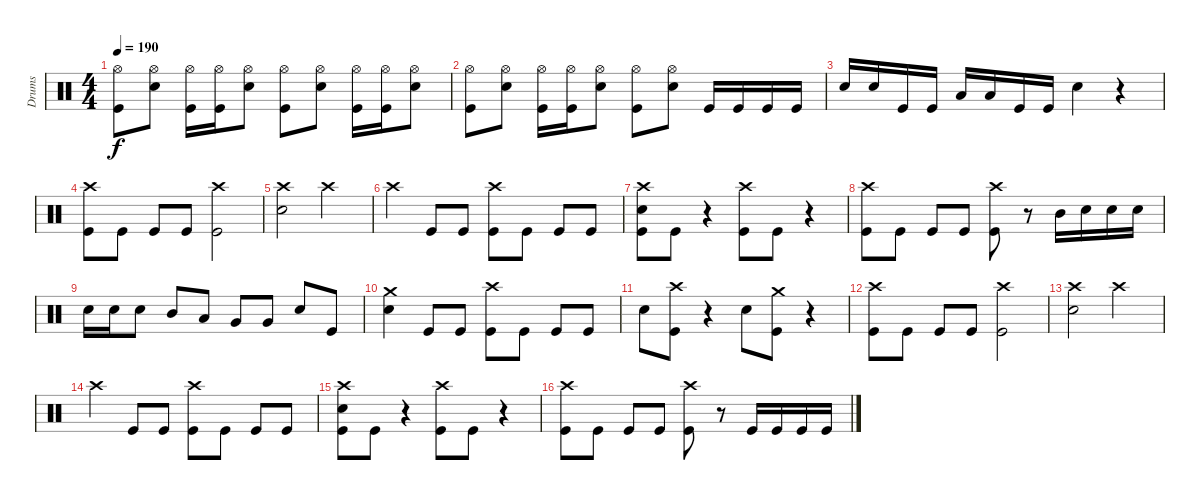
\track ("Drums" "Drums") {instrument percussion}
\staff {score}
\articulation defaults
\ts (4 4)
\tempo 190
\clef neutral
\ks c
("Hi-Hat (open)" "Kick (hit)").8{dy f} ("Hi-Hat (open)" "Snare (hit) 2").8 ("Hi-Hat (open)" "Kick (hit)").16 ("Hi-Hat (open)" "Kick (hit)").16 ("Hi-Hat (open)" "Snare (hit) 2").8 ("Hi-Hat (open)" "Kick (hit)").8 ("Hi-Hat (open)" "Snare (hit) 2").8 ("Hi-Hat (open)" "Kick (hit)").16 ("Hi-Hat (open)" "Kick (hit)").16 ("Hi-Hat (open)" "Snare (hit) 2").8 |
("Hi-Hat (open)" "Kick (hit)").8 ("Hi-Hat (open)" "Snare (hit) 2").8 ("Hi-Hat (open)" "Kick (hit)").16 ("Hi-Hat (open)" "Kick (hit)").16 ("Hi-Hat (open)" "Snare (hit) 2").8 ("Hi-Hat (open)" "Kick (hit)").8 ("Hi-Hat (open)" "Snare (hit) 2").8 "Kick (hit)".16 "Kick (hit)".16 "Kick (hit)".16 "Kick (hit)".16 |
"Snare (hit) 2".16 "Snare (hit) 2".16 "Kick (hit)".16 "Kick (hit)".16 "Low Tom (hit)".16 "Low Tom (hit)".16 "Kick (hit)".16 "Kick (hit)".16 "Snare (hit) 2".4 r.4 |
("Crash high (hit)" "Kick (hit)").8 "Kick (hit)".8 "Kick (hit)".8 "Kick (hit)".8 ("Crash high (hit)" "Kick (hit)").2 |
("Crash high (hit)" "Snare (hit) 2").2 "Crash high (hit)".2 |
"Crash high (hit)".4 "Kick (hit)".8 "Kick (hit)".8 ("Crash high (hit)" "Kick (hit)").8 "Kick (hit)".8 "Kick (hit)".8 "Kick (hit)".8 |
("Crash high (hit)" "Snare (hit) 2" "Kick (hit)").8 "Kick (hit)".8 r.4 ("Crash high (hit)" "Kick (hit)").8 "Kick (hit)".8 r.4 |
("Crash high (hit)" "Kick (hit)").8 "Kick (hit)".8 "Kick (hit)".8 "Kick (hit)".8 ("Crash high (hit)" "Kick (hit)").8 r.8 "Mid Tom (hit)".16 "Snare (hit) 2".16 "Snare (hit) 2".16 "Snare (hit) 2".16 |
"Snare (hit) 2".16 "Snare (hit) 2".16 "Snare (hit) 2".8 "Mid Tom (hit)".8 "Low Tom (hit)".8 "Very Low Tom (hit)".8 "Very Low Tom (hit)".8 "Snare (hit) 2".8 "Kick (hit)".8 |
("Crash medium (hit)" "Snare (hit) 2").4 "Kick (hit)".8 "Kick (hit)".8 ("Crash high (hit)" "Kick (hit)").8 "Kick (hit)".8 "Kick (hit)".8 "Kick (hit)".8 |
"Snare (hit) 2".8 ("Crash high (hit)" "Kick (hit)").8 r.4 "Snare (hit) 2".8 ("Crash medium (hit)" "Kick (hit)").8 r.4 |
("Crash high (hit)" "Kick (hit)").8 "Kick (hit)".8 "Kick (hit)".8 "Kick (hit)".8 ("Crash high (hit)" "Kick (hit)").2 |
("Crash high (hit)" "Snare (hit) 2").2 "Crash high (hit)".2 |
"Crash high (hit)".4 "Kick (hit)".8 "Kick (hit)".8 ("Crash high (hit)" "Kick (hit)").8 "Kick (hit)".8 "Kick (hit)".8 "Kick (hit)".8 |
("Crash high (hit)" "Snare (hit) 2" "Kick (hit)").8 "Kick (hit)".8 r.4 ("Crash high (hit)" "Kick (hit)").8 "Kick (hit)".8 r.4 |
("Crash high (hit)" "Kick (hit)").8 "Kick (hit)".8 "Kick (hit)".8 "Kick (hit)".8 ("Crash high (hit)" "Kick (hit)").8 r.8 "Kick (hit)".16 "Kick (hit)".16 "Kick (hit)".16 "Kick (hit)".16
